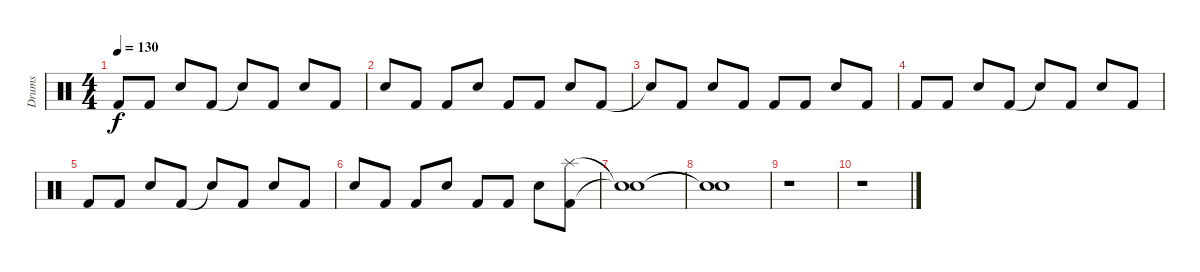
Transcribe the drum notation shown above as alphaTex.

\track ("Drums" "Drums") {instrument percussion}
\staff {score}
\articulation defaults
\ts (4 4)
\tempo 130
\clef neutral
\ks c "Kick (hit) 2".8{dy f} "Kick (hit) 2".8 "Electric Snare (hit)".8 "Kick (hit) 2".8 "Snare (hit)"{t}.8 "Kick (hit) 2".8 "Electric Snare (hit)".8 "Kick (hit) 2".8
|
"Electric Snare (hit)".8 "Kick (hit) 2".8 "Kick (hit) 2".8 "Electric Snare (hit)".8 "Kick (hit) 2".8 "Kick (hit) 2".8 "Electric Snare (hit)".8 "Kick (hit) 2".8 |
"Snare (hit)"{t}.8 "Kick (hit) 2".8 "Electric Snare (hit)".8 "Kick (hit) 2".8 "Kick (hit) 2".8 "Kick (hit) 2".8 "Electric Snare (hit)".8 "Kick (hit) 2".8 |
"Kick (hit) 2".8 "Kick (hit) 2".8 "Electric Snare (hit)".8 "Kick (hit) 2".8 "Snare (hit)"{t}.8 "Kick (hit) 2".8 "Electric Snare (hit)".8 "Kick (hit) 2".8 |
"Kick (hit) 2".8 "Kick (hit) 2".8 "Electric Snare (hit)".8 "Kick (hit) 2".8 "Snare (hit)"{t}.8 "Kick (hit) 2".8 "Electric Snare (hit)".8 "Kick (hit) 2".8 |
"Electric Snare (hit)".8 "Kick (hit) 2".8 "Kick (hit) 2".8 "Electric Snare (hit)".8 "Kick (hit) 2".8 "Kick (hit) 2".8 "Electric Snare (hit)".8 ("Splash (hit)" "Kick (hit) 2").8 |
("Snare (hit)"{t} "Snare (hit)"{t}).1 |
("Snare (hit)"{t} "Snare (hit)"{t}).1 |
r.1 |
r.1
